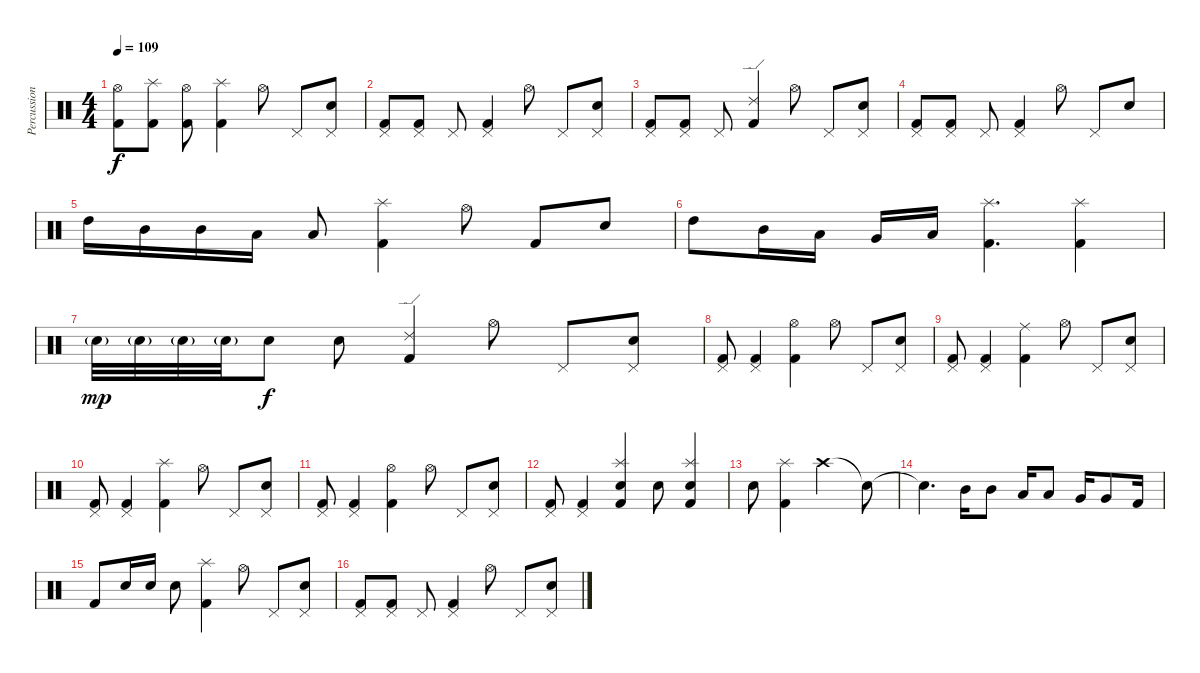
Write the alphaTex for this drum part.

\track ("Percussion" "Percussion") {instrument percussion}
\staff {score}
\articulation defaults
\ts (4 4)
\tempo 109
\clef neutral
\ks c
("Hi-Hat (open)" "Kick (hit) 2").8{dy f} ("Splash (hit)" "Kick (hit) 2").8 ("Hi-Hat (open)" "Kick (hit) 2").8 ("Splash (hit)" "Kick (hit) 2").4 "Hi-Hat (open)".8 "Pedal Hi-Hat (hit)".8 ("Pedal Hi-Hat (hit)" "Snare (hit) 2").8 |
("Pedal Hi-Hat (hit)" "Kick (hit) 2").8 ("Pedal Hi-Hat (hit)" "Kick (hit) 2").8 "Pedal Hi-Hat (hit)".8 ("Pedal Hi-Hat (hit)" "Kick (hit) 2").4 "Hi-Hat (open)".8 "Pedal Hi-Hat (hit)".8 ("Pedal Hi-Hat (hit)" "Snare (hit) 2").8 |
("Pedal Hi-Hat (hit)" "Kick (hit) 2").8 ("Pedal Hi-Hat (hit)" "Kick (hit) 2").8 "Pedal Hi-Hat (hit)".8 ("Ride (edge) 2" "Kick (hit) 2").4 "Hi-Hat (open)".8 "Pedal Hi-Hat (hit)".8 ("Pedal Hi-Hat (hit)" "Snare (hit) 2").8 |
("Pedal Hi-Hat (hit)" "Kick (hit) 2").8 ("Pedal Hi-Hat (hit)" "Kick (hit) 2").8 "Pedal Hi-Hat (hit)".8 ("Pedal Hi-Hat (hit)" "Kick (hit) 2").4 "Hi-Hat (open)".8 "Pedal Hi-Hat (hit)".8 "Snare (hit) 2".8 |
"High Tom (hit)".16 "Mid Tom (hit)".16 "Mid Tom (hit)".16 "Low Tom (hit)".16 "Low Floor Tom (hit)".8 ("Splash (hit)" "Kick (hit) 2").4 "Hi-Hat (open)".8 "Kick (hit) 2".8 "Snare (hit) 2".8 |
"High Tom (hit)".8 "Mid Tom (hit)".16 "Low Tom (hit)".16 "Very Low Tom (hit)".16 "Low Floor Tom (hit)".16 ("Splash (hit)" "Kick (hit) 2").4{d} ("Splash (hit)" "Kick (hit) 2").4 |
"Snare (hit) 2"{g}.32{dy mp volume 4} "Snare (hit) 2"{g}.32 "Snare (hit) 2"{g}.32 "Snare (hit) 2"{g}.32 "Snare (hit) 2".8{dy f volume 11} "Snare (hit) 2".8 ("Ride (edge) 2" "Kick (hit) 2").4 "Hi-Hat (open)".8 "Pedal Hi-Hat (hit)".8 ("Pedal Hi-Hat (hit)" "Snare (hit) 2").8 |
("Pedal Hi-Hat (hit)" "Kick (hit) 2").8 ("Pedal Hi-Hat (hit)" "Kick (hit) 2").4 ("Hi-Hat (open)" "Kick (hit) 2").4 "Hi-Hat (open)".8 "Pedal Hi-Hat (hit)".8 ("Pedal Hi-Hat (hit)" "Snare (hit) 2").8 |
("Pedal Hi-Hat (hit)" "Kick (hit) 2").8 ("Pedal Hi-Hat (hit)" "Kick (hit) 2").4 ("Ride (middle)" "Kick (hit) 2").4 "Hi-Hat (open)".8 "Pedal Hi-Hat (hit)".8 ("Pedal Hi-Hat (hit)" "Snare (hit) 2").8 |
("Pedal Hi-Hat (hit)" "Kick (hit) 2").8 ("Pedal Hi-Hat (hit)" "Kick (hit) 2").4 ("Splash (hit)" "Kick (hit) 2").4 "Hi-Hat (open)".8 "Pedal Hi-Hat (hit)".8 ("Pedal Hi-Hat (hit)" "Snare (hit) 2").8 |
("Pedal Hi-Hat (hit)" "Kick (hit) 2").8 ("Pedal Hi-Hat (hit)" "Kick (hit) 2").4 ("Hi-Hat (open)" "Kick (hit) 2").4 "Hi-Hat (open)".8 "Pedal Hi-Hat (hit)".8 ("Pedal Hi-Hat (hit)" "Snare (hit) 2").8 |
("Pedal Hi-Hat (hit)" "Kick (hit) 2").8 ("Pedal Hi-Hat (hit)" "Kick (hit) 2").4 ("Splash (hit)" "Snare (hit) 2" "Kick (hit) 2").4 "Snare (hit) 2".8 ("Splash (hit)" "Snare (hit) 2" "Kick (hit) 2").4 |
"Snare (hit) 2".8 ("Splash (hit)" "Kick (hit) 2").4 "Crash high (hit)".2 "Snare (hit)"{t}.8 |
"Snare (hit)"{t}.4{d} "Mid Tom (hit)".16 "Mid Tom (hit)".8 "Low Tom (hit)".16 "Low Tom (hit)".8 "Very Low Tom (hit)".16 "Very Low Tom (hit)".8 "Kick (hit) 2".16 |
"Kick (hit) 2".8 "Snare (hit) 2".16 "Snare (hit) 2".16 "Snare (hit) 2".8 ("Splash (hit)" "Kick (hit) 2").4 "Hi-Hat (open)".8 "Pedal Hi-Hat (hit)".8 ("Pedal Hi-Hat (hit)" "Snare (hit) 2").8 |
("Pedal Hi-Hat (hit)" "Kick (hit) 2").8 ("Pedal Hi-Hat (hit)" "Kick (hit) 2").8 "Pedal Hi-Hat (hit)".8 ("Pedal Hi-Hat (hit)" "Kick (hit) 2").4 "Hi-Hat (open)".8 "Pedal Hi-Hat (hit)".8 ("Pedal Hi-Hat (hit)" "Snare (hit) 2").8
